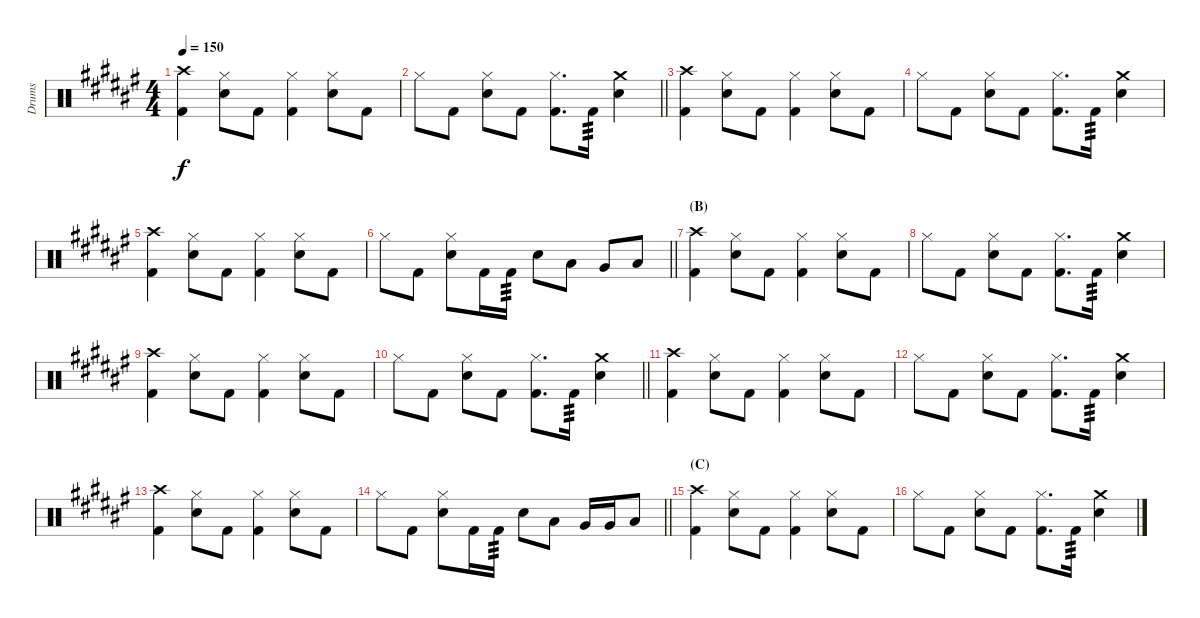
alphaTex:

\track ("Drums" "Drums") {instrument percussion}
\staff {score}
\articulation defaults
\ts (4 4)
\tempo 150
\clef neutral
\ks f#
("Crash high (hit)" "Kick (hit) 2").4{dy f} ("Electric Snare (hit)" "Hi-Hat (closed)").8 "Kick (hit) 2".8 ("Hi-Hat (closed)" "Kick (hit) 2").4 ("Electric Snare (hit)" "Hi-Hat (closed)").8 "Kick (hit) 2".8 |
\barLineRight lightlight "Hi-Hat (closed)".8 "Kick (hit) 2".8
("Electric Snare (hit)" "Hi-Hat (closed)").8 "Kick (hit) 2".8 ("Hi-Hat (closed)" "Kick (hit) 2").8{d} "Kick (hit) 2".16{tp 3} ("Crash medium (hit)" "Electric Snare (hit)").4 |
("Crash high (hit)" "Kick (hit) 2").4 ("Electric Snare (hit)" "Hi-Hat (closed)").8 "Kick (hit) 2".8 ("Hi-Hat (closed)" "Kick (hit) 2").4 ("Electric Snare (hit)" "Hi-Hat (closed)").8 "Kick (hit) 2".8 |
"Hi-Hat (closed)".8 "Kick (hit) 2".8 ("Electric Snare (hit)" "Hi-Hat (closed)").8 "Kick (hit) 2".8 ("Hi-Hat (closed)" "Kick (hit) 2").8{d} "Kick (hit) 2".16{tp 3} ("Crash medium (hit)" "Electric Snare (hit)").4 |
("Crash high (hit)" "Kick (hit) 2").4 ("Electric Snare (hit)" "Hi-Hat (closed)").8 "Kick (hit) 2".8 ("Hi-Hat (closed)" "Kick (hit) 2").4 ("Electric Snare (hit)" "Hi-Hat (closed)").8 "Kick (hit) 2".8 |
\barLineRight lightlight "Hi-Hat (closed)".8 "Kick (hit) 2".8
("Electric Snare (hit)" "Hi-Hat (closed)").8 "Kick (hit) 2".16 "Kick (hit) 2".16{tp 3} "Electric Snare (hit)".8 "Low Floor Tom (hit)".8 "Very Low Tom (hit)".8 "Low Floor Tom (hit)".8 |
\section ("" "(B)")
("Crash high (hit)" "Kick (hit) 2").4 ("Electric Snare (hit)" "Hi-Hat (closed)").8 "Kick (hit) 2".8 ("Hi-Hat (closed)" "Kick (hit) 2").4 ("Electric Snare (hit)" "Hi-Hat (closed)").8 "Kick (hit) 2".8 |
"Hi-Hat (closed)".8 "Kick (hit) 2".8 ("Electric Snare (hit)" "Hi-Hat (closed)").8 "Kick (hit) 2".8 ("Hi-Hat (closed)" "Kick (hit) 2").8{d} "Kick (hit) 2".16{tp 3} ("Crash medium (hit)" "Electric Snare (hit)").4 |
("Crash high (hit)" "Kick (hit) 2").4 ("Electric Snare (hit)" "Hi-Hat (closed)").8 "Kick (hit) 2".8 ("Hi-Hat (closed)" "Kick (hit) 2").4 ("Electric Snare (hit)" "Hi-Hat (closed)").8 "Kick (hit) 2".8 |
\barLineRight lightlight "Hi-Hat (closed)".8 "Kick (hit) 2".8
("Electric Snare (hit)" "Hi-Hat (closed)").8 "Kick (hit) 2".8 ("Hi-Hat (closed)" "Kick (hit) 2").8{d} "Kick (hit) 2".16{tp 3} ("Crash medium (hit)" "Electric Snare (hit)").4 |
("Crash high (hit)" "Kick (hit) 2").4 ("Electric Snare (hit)" "Hi-Hat (closed)").8 "Kick (hit) 2".8 ("Hi-Hat (closed)" "Kick (hit) 2").4 ("Electric Snare (hit)" "Hi-Hat (closed)").8 "Kick (hit) 2".8 |
"Hi-Hat (closed)".8 "Kick (hit) 2".8 ("Electric Snare (hit)" "Hi-Hat (closed)").8 "Kick (hit) 2".8 ("Hi-Hat (closed)" "Kick (hit) 2").8{d} "Kick (hit) 2".16{tp 3} ("Crash medium (hit)" "Electric Snare (hit)").4 |
("Crash high (hit)" "Kick (hit) 2").4 ("Electric Snare (hit)" "Hi-Hat (closed)").8 "Kick (hit) 2".8 ("Hi-Hat (closed)" "Kick (hit) 2").4 ("Electric Snare (hit)" "Hi-Hat (closed)").8 "Kick (hit) 2".8 |
\barLineRight lightlight "Hi-Hat (closed)".8 "Kick (hit) 2".8
("Electric Snare (hit)" "Hi-Hat (closed)").8 "Kick (hit) 2".16 "Kick (hit) 2".16{tp 3} "Electric Snare (hit)".8 "Low Floor Tom (hit)".8 "Very Low Tom (hit)".16 "Very Low Tom (hit)".16 "Low Floor Tom (hit)".8 |
\section ("" "(C)")
("Crash high (hit)" "Kick (hit) 2").4 ("Electric Snare (hit)" "Hi-Hat (closed)").8 "Kick (hit) 2".8 ("Hi-Hat (closed)" "Kick (hit) 2").4 ("Electric Snare (hit)" "Hi-Hat (closed)").8 "Kick (hit) 2".8 |
"Hi-Hat (closed)".8 "Kick (hit) 2".8 ("Electric Snare (hit)" "Hi-Hat (closed)").8 "Kick (hit) 2".8 ("Hi-Hat (closed)" "Kick (hit) 2").8{d} "Kick (hit) 2".16{tp 3} ("Crash medium (hit)" "Electric Snare (hit)").4
